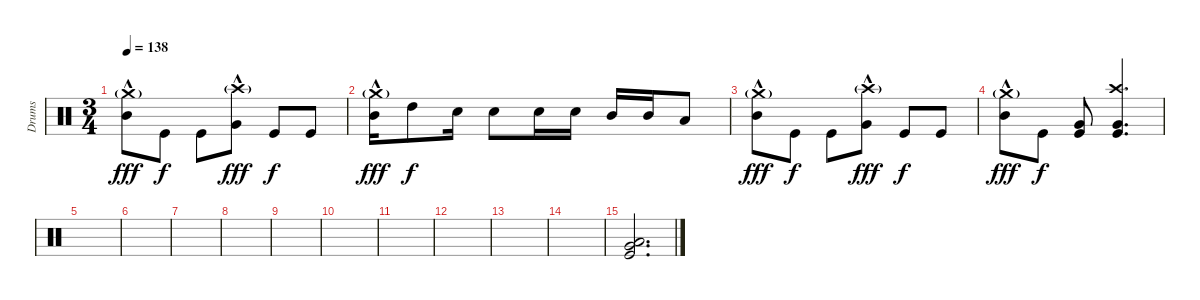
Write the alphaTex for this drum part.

\track ("Drums" "Drums") {instrument percussion}
\staff {score}
\articulation defaults
\ts (3 4)
\tempo 138
\clef neutral
\ks c
("Crash medium (hit)"{g} "Mid Tom (hit)"{hac}).8{dy fff} "Kick (hit)".8{dy f} "Kick (hit)".8 ("Crash high (hit)"{g} "Very Low Tom (hit)"{hac}).8{dy fff} "Kick (hit)".8{dy f} "Kick (hit)".8 |
("Crash medium (hit)"{g} "Mid Tom (hit)"{hac}).16{dy fff} "High Tom (hit)".8{dy f} "Electric Snare (hit)".16 "Electric Snare (hit)".8 "Electric Snare (hit)".16 "Electric Snare (hit)".16 "Mid Tom (hit)".16 "Mid Tom (hit)".16 "Low Tom (hit)".8 |
("Crash medium (hit)"{g} "Mid Tom (hit)"{hac}).8{dy fff} "Kick (hit)".8{dy f} "Kick (hit)".8 ("Crash high (hit)"{g} "Very Low Tom (hit)"{hac}).8{dy fff} "Kick (hit)".8{dy f} "Kick (hit)".8 |
("Crash medium (hit)"{g} "Mid Tom (hit)"{hac}).8{dy fff} "Kick (hit)".8{dy f} ("Very Low Tom (hit)" "Kick (hit)").8 ("Crash high (hit)" "Very Low Tom (hit)" "Kick (hit)").4{d} |
|
|
|
|
|
|
|
|
|
|
("Very Low Tom (hit)" "Low Floor Tom (hit)" "Kick (hit)").2{d}
